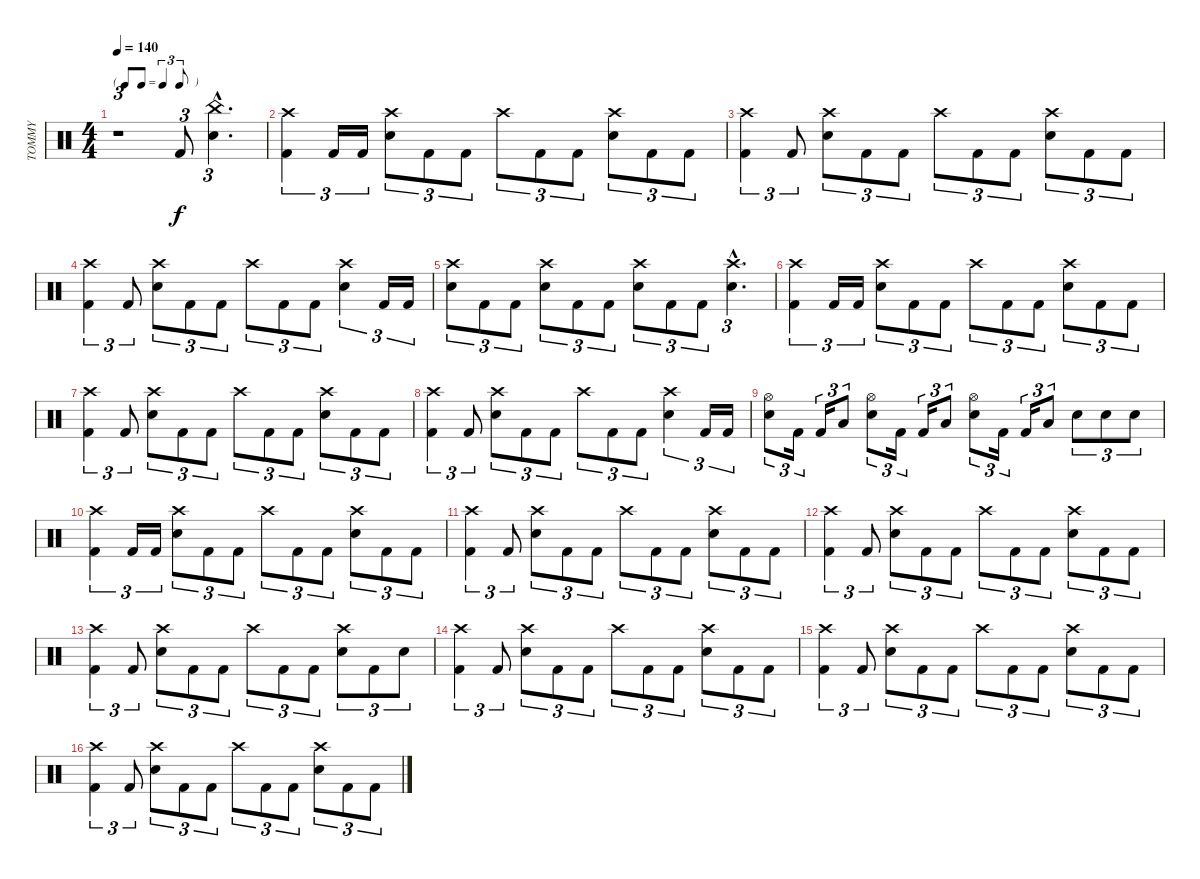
\track ("TOMMY" "TOMMY") {instrument percussion}
\staff {score}
\articulation defaults
\ts (4 4)
\tf triplet8th
\tempo 140
\clef neutral
\ks c
r.1{tu (3 2) dy f} "Kick (hit) 2".8{tu (3 2)} ("Snare (hit) 2"{hac} "China (hit)"{hac}).4{d tu (3 2)} |
("Kick (hit) 2" "Crash high (hit)").4{tu (3 2)} "Kick (hit) 2".16{tu (3 2)} "Kick (hit) 2".16{tu (3 2)} ("Snare (hit) 2" "Crash high (hit)").8{tu (3 2)} "Kick (hit) 2".8{tu (3 2)} "Kick (hit) 2".8{tu (3 2)} "Crash high (hit)".8{tu (3 2)} "Kick (hit) 2".8{tu (3 2)} "Kick (hit) 2".8{tu (3 2)} ("Snare (hit) 2" "Crash high (hit)").8{tu (3 2)} "Kick (hit) 2".8{tu (3 2)} "Kick (hit) 2".8{tu (3 2)} |
("Kick (hit) 2" "Crash high (hit)").4{tu (3 2)} "Kick (hit) 2".8{tu (3 2)} ("Snare (hit) 2" "Crash high (hit)").8{tu (3 2)} "Kick (hit) 2".8{tu (3 2)} "Kick (hit) 2".8{tu (3 2)} "Crash high (hit)".8{tu (3 2)} "Kick (hit) 2".8{tu (3 2)} "Kick (hit) 2".8{tu (3 2)} ("Snare (hit) 2" "Crash high (hit)").8{tu (3 2)} "Kick (hit) 2".8{tu (3 2)} "Kick (hit) 2".8{tu (3 2)} |
("Kick (hit) 2" "Crash high (hit)").4{tu (3 2)} "Kick (hit) 2".8{tu (3 2)} ("Snare (hit) 2" "Crash high (hit)").8{tu (3 2)} "Kick (hit) 2".8{tu (3 2)} "Kick (hit) 2".8{tu (3 2)} "Crash high (hit)".8{tu (3 2)} "Kick (hit) 2".8{tu (3 2)} "Kick (hit) 2".8{tu (3 2)} ("Snare (hit) 2" "Crash high (hit)").4{tu (3 2)} "Kick (hit) 2".16{tu (3 2)} "Kick (hit) 2".16{tu (3 2)} |
("Snare (hit) 2" "Crash high (hit)").8{tu (3 2)} "Kick (hit) 2".8{tu (3 2)} "Kick (hit) 2".8{tu (3 2)} ("Snare (hit) 2" "Crash high (hit)").8{tu (3 2)} "Kick (hit) 2".8{tu (3 2)} "Kick (hit) 2".8{tu (3 2)} ("Snare (hit) 2" "Crash high (hit)").8{tu (3 2)} "Kick (hit) 2".8{tu (3 2)} "Kick (hit) 2".8{tu (3 2)} ("Snare (hit) 2"{hac} "Crash high (hit)"{hac}).4{d tu (3 2)} |
("Kick (hit) 2" "Crash high (hit)").4{tu (3 2)} "Kick (hit) 2".16{tu (3 2)} "Kick (hit) 2".16{tu (3 2)} ("Snare (hit) 2" "Crash high (hit)").8{tu (3 2)} "Kick (hit) 2".8{tu (3 2)} "Kick (hit) 2".8{tu (3 2)} "Crash high (hit)".8{tu (3 2)} "Kick (hit) 2".8{tu (3 2)} "Kick (hit) 2".8{tu (3 2)} ("Snare (hit) 2" "Crash high (hit)").8{tu (3 2)} "Kick (hit) 2".8{tu (3 2)} "Kick (hit) 2".8{tu (3 2)} |
("Kick (hit) 2" "Crash high (hit)").4{tu (3 2)} "Kick (hit) 2".8{tu (3 2)} ("Snare (hit) 2" "Crash high (hit)").8{tu (3 2)} "Kick (hit) 2".8{tu (3 2)} "Kick (hit) 2".8{tu (3 2)} "Crash high (hit)".8{tu (3 2)} "Kick (hit) 2".8{tu (3 2)} "Kick (hit) 2".8{tu (3 2)} ("Snare (hit) 2" "Crash high (hit)").8{tu (3 2)} "Kick (hit) 2".8{tu (3 2)} "Kick (hit) 2".8{tu (3 2)} |
("Kick (hit) 2" "Crash high (hit)").4{tu (3 2)} "Kick (hit) 2".8{tu (3 2)} ("Snare (hit) 2" "Crash high (hit)").8{tu (3 2)} "Kick (hit) 2".8{tu (3 2)} "Kick (hit) 2".8{tu (3 2)} "Crash high (hit)".8{tu (3 2)} "Kick (hit) 2".8{tu (3 2)} "Kick (hit) 2".8{tu (3 2)} ("Snare (hit) 2" "Crash high (hit)").4{tu (3 2)} "Kick (hit) 2".16{tu (3 2)} "Kick (hit) 2".16{tu (3 2)} |
("Snare (hit) 2" "Hi-Hat (open)").8{tu (3 2)} "Kick (hit) 2".16{tu (3 2)} "Kick (hit) 2".16{tu (3 2)} "Low Floor Tom (hit)".8{tu (3 2)} ("Snare (hit) 2" "Hi-Hat (open)").8{tu (3 2)} "Kick (hit) 2".16{tu (3 2)} "Kick (hit) 2".16{tu (3 2)} "Low Floor Tom (hit)".8{tu (3 2)} ("Snare (hit) 2" "Hi-Hat (open)").8{tu (3 2)} "Kick (hit) 2".16{tu (3 2)} "Kick (hit) 2".16{tu (3 2)} "Low Floor Tom (hit)".8{tu (3 2)} "Snare (hit) 2".8{tu (3 2)} "Snare (hit) 2".8{tu (3 2)} "Snare (hit) 2".8{tu (3 2)} |
("Kick (hit) 2" "Crash high (hit)").4{tu (3 2)} "Kick (hit) 2".16{tu (3 2)} "Kick (hit) 2".16{tu (3 2)} ("Snare (hit) 2" "Crash high (hit)").8{tu (3 2)} "Kick (hit) 2".8{tu (3 2)} "Kick (hit) 2".8{tu (3 2)} "Crash high (hit)".8{tu (3 2)} "Kick (hit) 2".8{tu (3 2)} "Kick (hit) 2".8{tu (3 2)} ("Snare (hit) 2" "Crash high (hit)").8{tu (3 2)} "Kick (hit) 2".8{tu (3 2)} "Kick (hit) 2".8{tu (3 2)} |
("Kick (hit) 2" "Crash high (hit)").4{tu (3 2)} "Kick (hit) 2".8{tu (3 2)} ("Snare (hit) 2" "Crash high (hit)").8{tu (3 2)} "Kick (hit) 2".8{tu (3 2)} "Kick (hit) 2".8{tu (3 2)} "Crash high (hit)".8{tu (3 2)} "Kick (hit) 2".8{tu (3 2)} "Kick (hit) 2".8{tu (3 2)} ("Snare (hit) 2" "Crash high (hit)").8{tu (3 2)} "Kick (hit) 2".8{tu (3 2)} "Kick (hit) 2".8{tu (3 2)} |
("Kick (hit) 2" "Crash high (hit)").4{tu (3 2)} "Kick (hit) 2".8{tu (3 2)} ("Snare (hit) 2" "Crash high (hit)").8{tu (3 2)} "Kick (hit) 2".8{tu (3 2)} "Kick (hit) 2".8{tu (3 2)} "Crash high (hit)".8{tu (3 2)} "Kick (hit) 2".8{tu (3 2)} "Kick (hit) 2".8{tu (3 2)} ("Snare (hit) 2" "Crash high (hit)").8{tu (3 2)} "Kick (hit) 2".8{tu (3 2)} "Kick (hit) 2".8{tu (3 2)} |
("Kick (hit) 2" "Crash high (hit)").4{tu (3 2)} "Kick (hit) 2".8{tu (3 2)} ("Snare (hit) 2" "Crash high (hit)").8{tu (3 2)} "Kick (hit) 2".8{tu (3 2)} "Kick (hit) 2".8{tu (3 2)} "Crash high (hit)".8{tu (3 2)} "Kick (hit) 2".8{tu (3 2)} "Kick (hit) 2".8{tu (3 2)} ("Snare (hit) 2" "Crash high (hit)").8{tu (3 2)} "Kick (hit) 2".8{tu (3 2)} "Snare (hit) 2".8{tu (3 2)} |
("Kick (hit) 2" "Crash high (hit)").4{tu (3 2)} "Kick (hit) 2".8{tu (3 2)} ("Snare (hit) 2" "Crash high (hit)").8{tu (3 2)} "Kick (hit) 2".8{tu (3 2)} "Kick (hit) 2".8{tu (3 2)} "Crash high (hit)".8{tu (3 2)} "Kick (hit) 2".8{tu (3 2)} "Kick (hit) 2".8{tu (3 2)} ("Snare (hit) 2" "Crash high (hit)").8{tu (3 2)} "Kick (hit) 2".8{tu (3 2)} "Kick (hit) 2".8{tu (3 2)} |
("Kick (hit) 2" "Crash high (hit)").4{tu (3 2)} "Kick (hit) 2".8{tu (3 2)} ("Snare (hit) 2" "Crash high (hit)").8{tu (3 2)} "Kick (hit) 2".8{tu (3 2)} "Kick (hit) 2".8{tu (3 2)} "Crash high (hit)".8{tu (3 2)} "Kick (hit) 2".8{tu (3 2)} "Kick (hit) 2".8{tu (3 2)} ("Snare (hit) 2" "Crash high (hit)").8{tu (3 2)} "Kick (hit) 2".8{tu (3 2)} "Kick (hit) 2".8{tu (3 2)} |
("Kick (hit) 2" "Crash high (hit)").4{tu (3 2)} "Kick (hit) 2".8{tu (3 2)} ("Snare (hit) 2" "Crash high (hit)").8{tu (3 2)} "Kick (hit) 2".8{tu (3 2)} "Kick (hit) 2".8{tu (3 2)} "Crash high (hit)".8{tu (3 2)} "Kick (hit) 2".8{tu (3 2)} "Kick (hit) 2".8{tu (3 2)} ("Snare (hit) 2" "Crash high (hit)").8{tu (3 2)} "Kick (hit) 2".8{tu (3 2)} "Kick (hit) 2".8{tu (3 2)}
